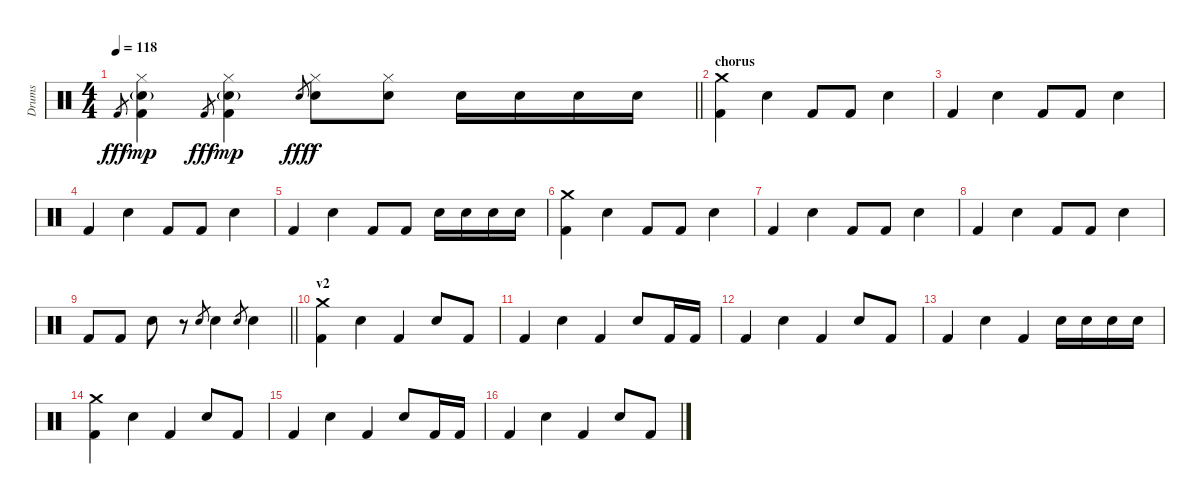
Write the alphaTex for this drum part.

\track ("Drums" "Drums") {instrument percussion}
\staff {score}
\articulation defaults
\ts (4 4)
\tempo 118
\clef neutral
\barLineRight lightlight
\ks c "Kick (hit) 2"{h x}.8{gr dy fff}
("Kick (hit) 2" "Snare (hit) 2"{g} "Hi-Hat (closed)").4{dy mp} "Kick (hit) 2"{h x}.8{gr dy fff} ("Kick (hit) 2" "Snare (hit) 2"{g} "Hi-Hat (closed)").4{dy mp} "Snare (hit) 2"{h x}.8{gr dy fff} ("Snare (hit) 2" "Hi-Hat (closed)").8{dy f} ("Snare (hit) 2" "Hi-Hat (closed)").8 "Snare (hit) 2".16 "Snare (hit) 2".16 "Snare (hit) 2".16 "Snare (hit) 2".16 |
\section ("" "chorus")
("Crash medium (hit)" "Kick (hit) 2").4 "Snare (hit) 2".4 "Kick (hit) 2".8 "Kick (hit) 2".8 "Snare (hit) 2".4 |
"Kick (hit) 2".4 "Snare (hit) 2".4 "Kick (hit) 2".8 "Kick (hit) 2".8 "Snare (hit) 2".4 |
"Kick (hit) 2".4 "Snare (hit) 2".4 "Kick (hit) 2".8 "Kick (hit) 2".8 "Snare (hit) 2".4 |
"Kick (hit) 2".4 "Snare (hit) 2".4 "Kick (hit) 2".8 "Kick (hit) 2".8 "Snare (hit) 2".16 "Snare (hit) 2".16 "Snare (hit) 2".16 "Snare (hit) 2".16 |
("Crash medium (hit)" "Kick (hit) 2").4 "Snare (hit) 2".4 "Kick (hit) 2".8 "Kick (hit) 2".8 "Snare (hit) 2".4 |
"Kick (hit) 2".4 "Snare (hit) 2".4 "Kick (hit) 2".8 "Kick (hit) 2".8 "Snare (hit) 2".4 |
"Kick (hit) 2".4 "Snare (hit) 2".4 "Kick (hit) 2".8 "Kick (hit) 2".8 "Snare (hit) 2".4 |
\barLineRight lightlight "Kick (hit) 2".8 "Kick (hit) 2".8 "Snare (hit) 2".8
r.8 "Snare (hit) 2".8{gr} "Snare (hit) 2".4 "Snare (hit) 2".8{gr} "Snare (hit) 2".4 |
\section ("" "v2")
("Crash medium (hit)" "Kick (hit) 2").4 "Snare (hit) 2".4 "Kick (hit) 2".4 "Snare (hit) 2".8 "Kick (hit) 2".8 |
"Kick (hit) 2".4 "Snare (hit) 2".4 "Kick (hit) 2".4 "Snare (hit) 2".8 "Kick (hit) 2".16 "Kick (hit) 2".16 |
"Kick (hit) 2".4 "Snare (hit) 2".4 "Kick (hit) 2".4 "Snare (hit) 2".8 "Kick (hit) 2".8 |
"Kick (hit) 2".4 "Snare (hit) 2".4 "Kick (hit) 2".4 "Snare (hit) 2".16 "Snare (hit) 2".16 "Snare (hit) 2".16 "Snare (hit) 2".16 |
("Crash medium (hit)" "Kick (hit) 2").4 "Snare (hit) 2".4 "Kick (hit) 2".4 "Snare (hit) 2".8 "Kick (hit) 2".8 |
"Kick (hit) 2".4 "Snare (hit) 2".4 "Kick (hit) 2".4 "Snare (hit) 2".8 "Kick (hit) 2".16 "Kick (hit) 2".16 |
"Kick (hit) 2".4 "Snare (hit) 2".4 "Kick (hit) 2".4 "Snare (hit) 2".8 "Kick (hit) 2".8
